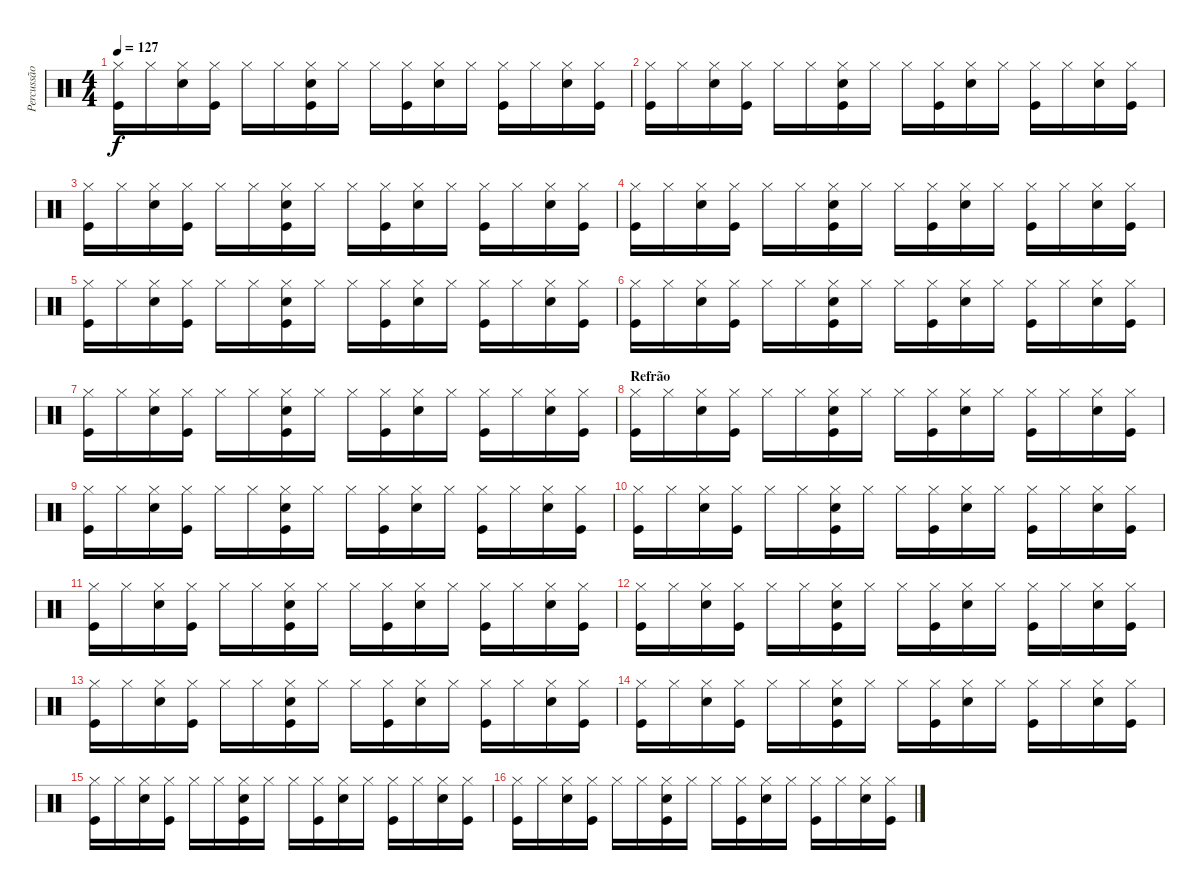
\track ("Percussão" "Percussão") {instrument percussion}
\staff {score}
\articulation defaults
\ts (4 4)
\tempo 127
\clef neutral
\ks c
("Kick (hit)" "Hi-Hat (closed)").16{dy f} "Hi-Hat (closed)".16 ("Hi-Hat (closed)" "Snare (hit) 2").16 ("Kick (hit)" "Hi-Hat (closed)").16 "Hi-Hat (closed)".16 "Hi-Hat (closed)".16 ("Kick (hit)" "Hi-Hat (closed)" "Snare (hit) 2").16 "Hi-Hat (closed)".16 "Hi-Hat (closed)".16 ("Kick (hit)" "Hi-Hat (closed)").16 ("Hi-Hat (closed)" "Snare (hit) 2").16 "Hi-Hat (closed)".16 ("Kick (hit)" "Hi-Hat (closed)").16 "Hi-Hat (closed)".16 ("Hi-Hat (closed)" "Snare (hit) 2").16 ("Kick (hit)" "Hi-Hat (closed)").16 |
("Kick (hit)" "Hi-Hat (closed)").16 "Hi-Hat (closed)".16 ("Hi-Hat (closed)" "Snare (hit) 2").16 ("Kick (hit)" "Hi-Hat (closed)").16 "Hi-Hat (closed)".16 "Hi-Hat (closed)".16 ("Kick (hit)" "Hi-Hat (closed)" "Snare (hit) 2").16 "Hi-Hat (closed)".16 "Hi-Hat (closed)".16 ("Kick (hit)" "Hi-Hat (closed)").16 ("Hi-Hat (closed)" "Snare (hit) 2").16 "Hi-Hat (closed)".16 ("Kick (hit)" "Hi-Hat (closed)").16 "Hi-Hat (closed)".16 ("Hi-Hat (closed)" "Snare (hit) 2").16 ("Kick (hit)" "Hi-Hat (closed)").16 |
("Kick (hit)" "Hi-Hat (closed)").16 "Hi-Hat (closed)".16 ("Hi-Hat (closed)" "Snare (hit) 2").16 ("Kick (hit)" "Hi-Hat (closed)").16 "Hi-Hat (closed)".16 "Hi-Hat (closed)".16 ("Kick (hit)" "Hi-Hat (closed)" "Snare (hit) 2").16 "Hi-Hat (closed)".16 "Hi-Hat (closed)".16 ("Kick (hit)" "Hi-Hat (closed)").16 ("Hi-Hat (closed)" "Snare (hit) 2").16 "Hi-Hat (closed)".16 ("Kick (hit)" "Hi-Hat (closed)").16 "Hi-Hat (closed)".16 ("Hi-Hat (closed)" "Snare (hit) 2").16 ("Kick (hit)" "Hi-Hat (closed)").16 |
("Kick (hit)" "Hi-Hat (closed)").16 "Hi-Hat (closed)".16 ("Hi-Hat (closed)" "Snare (hit) 2").16 ("Kick (hit)" "Hi-Hat (closed)").16 "Hi-Hat (closed)".16 "Hi-Hat (closed)".16 ("Kick (hit)" "Hi-Hat (closed)" "Snare (hit) 2").16 "Hi-Hat (closed)".16 "Hi-Hat (closed)".16 ("Kick (hit)" "Hi-Hat (closed)").16 ("Hi-Hat (closed)" "Snare (hit) 2").16 "Hi-Hat (closed)".16 ("Kick (hit)" "Hi-Hat (closed)").16 "Hi-Hat (closed)".16 ("Hi-Hat (closed)" "Snare (hit) 2").16 ("Kick (hit)" "Hi-Hat (closed)").16 |
("Kick (hit)" "Hi-Hat (closed)").16 "Hi-Hat (closed)".16 ("Hi-Hat (closed)" "Snare (hit) 2").16 ("Kick (hit)" "Hi-Hat (closed)").16 "Hi-Hat (closed)".16 "Hi-Hat (closed)".16 ("Kick (hit)" "Hi-Hat (closed)" "Snare (hit) 2").16 "Hi-Hat (closed)".16 "Hi-Hat (closed)".16 ("Kick (hit)" "Hi-Hat (closed)").16 ("Hi-Hat (closed)" "Snare (hit) 2").16 "Hi-Hat (closed)".16 ("Kick (hit)" "Hi-Hat (closed)").16 "Hi-Hat (closed)".16 ("Hi-Hat (closed)" "Snare (hit) 2").16 ("Kick (hit)" "Hi-Hat (closed)").16 |
("Kick (hit)" "Hi-Hat (closed)").16 "Hi-Hat (closed)".16 ("Hi-Hat (closed)" "Snare (hit) 2").16 ("Kick (hit)" "Hi-Hat (closed)").16 "Hi-Hat (closed)".16 "Hi-Hat (closed)".16 ("Kick (hit)" "Hi-Hat (closed)" "Snare (hit) 2").16 "Hi-Hat (closed)".16 "Hi-Hat (closed)".16 ("Kick (hit)" "Hi-Hat (closed)").16 ("Hi-Hat (closed)" "Snare (hit) 2").16 "Hi-Hat (closed)".16 ("Kick (hit)" "Hi-Hat (closed)").16 "Hi-Hat (closed)".16 ("Hi-Hat (closed)" "Snare (hit) 2").16 ("Kick (hit)" "Hi-Hat (closed)").16 |
("Kick (hit)" "Hi-Hat (closed)").16 "Hi-Hat (closed)".16 ("Hi-Hat (closed)" "Snare (hit) 2").16 ("Kick (hit)" "Hi-Hat (closed)").16 "Hi-Hat (closed)".16 "Hi-Hat (closed)".16 ("Kick (hit)" "Hi-Hat (closed)" "Snare (hit) 2").16 "Hi-Hat (closed)".16 "Hi-Hat (closed)".16 ("Kick (hit)" "Hi-Hat (closed)").16 ("Hi-Hat (closed)" "Snare (hit) 2").16 "Hi-Hat (closed)".16 ("Kick (hit)" "Hi-Hat (closed)").16 "Hi-Hat (closed)".16 ("Hi-Hat (closed)" "Snare (hit) 2").16 ("Kick (hit)" "Hi-Hat (closed)").16 |
\section ("" "Refrão")
("Kick (hit)" "Hi-Hat (closed)").16 "Hi-Hat (closed)".16 ("Hi-Hat (closed)" "Snare (hit) 2").16 ("Kick (hit)" "Hi-Hat (closed)").16 "Hi-Hat (closed)".16 "Hi-Hat (closed)".16 ("Kick (hit)" "Hi-Hat (closed)" "Snare (hit) 2").16 "Hi-Hat (closed)".16 "Hi-Hat (closed)".16 ("Kick (hit)" "Hi-Hat (closed)").16 ("Hi-Hat (closed)" "Snare (hit) 2").16 "Hi-Hat (closed)".16 ("Kick (hit)" "Hi-Hat (closed)").16 "Hi-Hat (closed)".16 ("Hi-Hat (closed)" "Snare (hit) 2").16 ("Kick (hit)" "Hi-Hat (closed)").16 |
("Kick (hit)" "Hi-Hat (closed)").16 "Hi-Hat (closed)".16 ("Hi-Hat (closed)" "Snare (hit) 2").16 ("Kick (hit)" "Hi-Hat (closed)").16 "Hi-Hat (closed)".16 "Hi-Hat (closed)".16 ("Kick (hit)" "Hi-Hat (closed)" "Snare (hit) 2").16 "Hi-Hat (closed)".16 "Hi-Hat (closed)".16 ("Kick (hit)" "Hi-Hat (closed)").16 ("Hi-Hat (closed)" "Snare (hit) 2").16 "Hi-Hat (closed)".16 ("Kick (hit)" "Hi-Hat (closed)").16 "Hi-Hat (closed)".16 ("Hi-Hat (closed)" "Snare (hit) 2").16 ("Kick (hit)" "Hi-Hat (closed)").16 |
("Kick (hit)" "Hi-Hat (closed)").16 "Hi-Hat (closed)".16 ("Hi-Hat (closed)" "Snare (hit) 2").16 ("Kick (hit)" "Hi-Hat (closed)").16 "Hi-Hat (closed)".16 "Hi-Hat (closed)".16 ("Kick (hit)" "Hi-Hat (closed)" "Snare (hit) 2").16 "Hi-Hat (closed)".16 "Hi-Hat (closed)".16 ("Kick (hit)" "Hi-Hat (closed)").16 ("Hi-Hat (closed)" "Snare (hit) 2").16 "Hi-Hat (closed)".16 ("Kick (hit)" "Hi-Hat (closed)").16 "Hi-Hat (closed)".16 ("Hi-Hat (closed)" "Snare (hit) 2").16 ("Kick (hit)" "Hi-Hat (closed)").16 |
("Kick (hit)" "Hi-Hat (closed)").16 "Hi-Hat (closed)".16 ("Hi-Hat (closed)" "Snare (hit) 2").16 ("Kick (hit)" "Hi-Hat (closed)").16 "Hi-Hat (closed)".16 "Hi-Hat (closed)".16 ("Kick (hit)" "Hi-Hat (closed)" "Snare (hit) 2").16 "Hi-Hat (closed)".16 "Hi-Hat (closed)".16 ("Kick (hit)" "Hi-Hat (closed)").16 ("Hi-Hat (closed)" "Snare (hit) 2").16 "Hi-Hat (closed)".16 ("Kick (hit)" "Hi-Hat (closed)").16 "Hi-Hat (closed)".16 ("Hi-Hat (closed)" "Snare (hit) 2").16 ("Kick (hit)" "Hi-Hat (closed)").16 |
("Kick (hit)" "Hi-Hat (closed)").16 "Hi-Hat (closed)".16 ("Hi-Hat (closed)" "Snare (hit) 2").16 ("Kick (hit)" "Hi-Hat (closed)").16 "Hi-Hat (closed)".16 "Hi-Hat (closed)".16 ("Kick (hit)" "Hi-Hat (closed)" "Snare (hit) 2").16 "Hi-Hat (closed)".16 "Hi-Hat (closed)".16 ("Kick (hit)" "Hi-Hat (closed)").16 ("Hi-Hat (closed)" "Snare (hit) 2").16 "Hi-Hat (closed)".16 ("Kick (hit)" "Hi-Hat (closed)").16 "Hi-Hat (closed)".16 ("Hi-Hat (closed)" "Snare (hit) 2").16 ("Kick (hit)" "Hi-Hat (closed)").16 |
("Kick (hit)" "Hi-Hat (closed)").16 "Hi-Hat (closed)".16 ("Hi-Hat (closed)" "Snare (hit) 2").16 ("Kick (hit)" "Hi-Hat (closed)").16 "Hi-Hat (closed)".16 "Hi-Hat (closed)".16 ("Kick (hit)" "Hi-Hat (closed)" "Snare (hit) 2").16 "Hi-Hat (closed)".16 "Hi-Hat (closed)".16 ("Kick (hit)" "Hi-Hat (closed)").16 ("Hi-Hat (closed)" "Snare (hit) 2").16 "Hi-Hat (closed)".16 ("Kick (hit)" "Hi-Hat (closed)").16 "Hi-Hat (closed)".16 ("Hi-Hat (closed)" "Snare (hit) 2").16 ("Kick (hit)" "Hi-Hat (closed)").16 |
("Kick (hit)" "Hi-Hat (closed)").16 "Hi-Hat (closed)".16 ("Hi-Hat (closed)" "Snare (hit) 2").16 ("Kick (hit)" "Hi-Hat (closed)").16 "Hi-Hat (closed)".16 "Hi-Hat (closed)".16 ("Kick (hit)" "Hi-Hat (closed)" "Snare (hit) 2").16 "Hi-Hat (closed)".16 "Hi-Hat (closed)".16 ("Kick (hit)" "Hi-Hat (closed)").16 ("Hi-Hat (closed)" "Snare (hit) 2").16 "Hi-Hat (closed)".16 ("Kick (hit)" "Hi-Hat (closed)").16 "Hi-Hat (closed)".16 ("Hi-Hat (closed)" "Snare (hit) 2").16 ("Kick (hit)" "Hi-Hat (closed)").16 |
("Kick (hit)" "Hi-Hat (closed)").16 "Hi-Hat (closed)".16 ("Hi-Hat (closed)" "Snare (hit) 2").16 ("Kick (hit)" "Hi-Hat (closed)").16 "Hi-Hat (closed)".16 "Hi-Hat (closed)".16 ("Kick (hit)" "Hi-Hat (closed)" "Snare (hit) 2").16 "Hi-Hat (closed)".16 "Hi-Hat (closed)".16 ("Kick (hit)" "Hi-Hat (closed)").16 ("Hi-Hat (closed)" "Snare (hit) 2").16 "Hi-Hat (closed)".16 ("Kick (hit)" "Hi-Hat (closed)").16 "Hi-Hat (closed)".16 ("Hi-Hat (closed)" "Snare (hit) 2").16 ("Kick (hit)" "Hi-Hat (closed)").16 |
("Kick (hit)" "Hi-Hat (closed)").16 "Hi-Hat (closed)".16 ("Hi-Hat (closed)" "Snare (hit) 2").16 ("Kick (hit)" "Hi-Hat (closed)").16 "Hi-Hat (closed)".16 "Hi-Hat (closed)".16 ("Kick (hit)" "Hi-Hat (closed)" "Snare (hit) 2").16 "Hi-Hat (closed)".16 "Hi-Hat (closed)".16 ("Kick (hit)" "Hi-Hat (closed)").16 ("Hi-Hat (closed)" "Snare (hit) 2").16 "Hi-Hat (closed)".16 ("Kick (hit)" "Hi-Hat (closed)").16 "Hi-Hat (closed)".16 ("Hi-Hat (closed)" "Snare (hit) 2").16 ("Kick (hit)" "Hi-Hat (closed)").16
